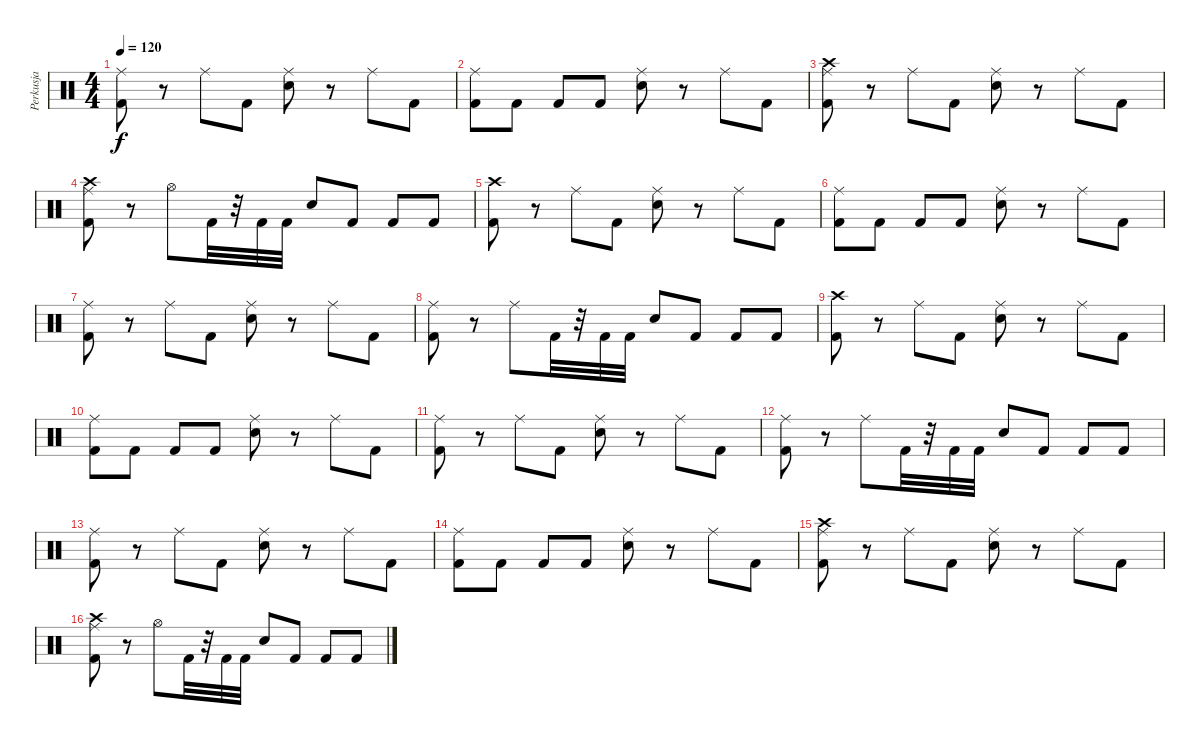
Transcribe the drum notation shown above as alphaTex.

\track ("Perkusja" "Perkusja") {instrument percussion}
\staff {score}
\articulation defaults
\ts (4 4)
\tempo 120
\clef neutral
\ks c
("Ride (middle)" "Kick (hit) 2").8{dy f} r.8 "Ride (middle)".8 "Kick (hit) 2".8 ("Ride (middle)" "Snare (hit) 2").8 r.8 "Ride (middle)".8 "Kick (hit) 2".8 |
("Ride (middle)" "Kick (hit) 2").8 "Kick (hit) 2".8 "Kick (hit) 2".8 "Kick (hit) 2".8 ("Ride (middle)" "Snare (hit) 2").8 r.8 "Ride (middle)".8 "Kick (hit) 2".8 |
("Ride (middle)" "Crash high (hit)" "Kick (hit) 2").8 r.8 "Ride (middle)".8 "Kick (hit) 2".8 ("Ride (middle)" "Snare (hit) 2").8 r.8 "Ride (middle)".8 "Kick (hit) 2".8 |
("Ride (middle)" "Crash high (hit)" "Kick (hit) 2").8 r.8 "Hi-Hat (open)".8 "Kick (hit) 2".32 r.32 "Kick (hit) 2".32 "Kick (hit) 2".32 "Snare (hit) 2".8 "Kick (hit) 2".8 "Kick (hit) 2".8 "Kick (hit) 2".8 |
("Crash high (hit)" "Kick (hit) 2").8 r.8 "Ride (middle)".8 "Kick (hit) 2".8 ("Ride (middle)" "Snare (hit) 2").8 r.8 "Ride (middle)".8 "Kick (hit) 2".8 |
("Ride (middle)" "Kick (hit) 2").8 "Kick (hit) 2".8 "Kick (hit) 2".8 "Kick (hit) 2".8 ("Ride (middle)" "Snare (hit) 2").8 r.8 "Ride (middle)".8 "Kick (hit) 2".8 |
("Ride (middle)" "Kick (hit) 2").8 r.8 "Ride (middle)".8 "Kick (hit) 2".8 ("Ride (middle)" "Snare (hit) 2").8 r.8 "Ride (middle)".8 "Kick (hit) 2".8 |
("Ride (middle)" "Kick (hit) 2").8 r.8 "Ride (middle)".8 "Kick (hit) 2".32 r.32 "Kick (hit) 2".32 "Kick (hit) 2".32 "Snare (hit) 2".8 "Kick (hit) 2".8 "Kick (hit) 2".8 "Kick (hit) 2".8 |
("Crash high (hit)" "Kick (hit) 2").8 r.8 "Ride (middle)".8 "Kick (hit) 2".8 ("Ride (middle)" "Snare (hit) 2").8 r.8 "Ride (middle)".8 "Kick (hit) 2".8 |
("Ride (middle)" "Kick (hit) 2").8 "Kick (hit) 2".8 "Kick (hit) 2".8 "Kick (hit) 2".8 ("Ride (middle)" "Snare (hit) 2").8 r.8 "Ride (middle)".8 "Kick (hit) 2".8 |
("Ride (middle)" "Kick (hit) 2").8 r.8 "Ride (middle)".8 "Kick (hit) 2".8 ("Ride (middle)" "Snare (hit) 2").8 r.8 "Ride (middle)".8 "Kick (hit) 2".8 |
("Ride (middle)" "Kick (hit) 2").8 r.8 "Ride (middle)".8 "Kick (hit) 2".32 r.32 "Kick (hit) 2".32 "Kick (hit) 2".32 "Snare (hit) 2".8 "Kick (hit) 2".8 "Kick (hit) 2".8 "Kick (hit) 2".8 |
("Ride (middle)" "Kick (hit) 2").8 r.8 "Ride (middle)".8 "Kick (hit) 2".8 ("Ride (middle)" "Snare (hit) 2").8 r.8 "Ride (middle)".8 "Kick (hit) 2".8 |
("Ride (middle)" "Kick (hit) 2").8 "Kick (hit) 2".8 "Kick (hit) 2".8 "Kick (hit) 2".8 ("Ride (middle)" "Snare (hit) 2").8 r.8 "Ride (middle)".8 "Kick (hit) 2".8 |
("Ride (middle)" "Crash high (hit)" "Kick (hit) 2").8 r.8 "Ride (middle)".8 "Kick (hit) 2".8 ("Ride (middle)" "Snare (hit) 2").8 r.8 "Ride (middle)".8 "Kick (hit) 2".8 |
("Ride (middle)" "Crash high (hit)" "Kick (hit) 2").8 r.8 "Hi-Hat (open)".8 "Kick (hit) 2".32 r.32 "Kick (hit) 2".32 "Kick (hit) 2".32 "Snare (hit) 2".8 "Kick (hit) 2".8 "Kick (hit) 2".8 "Kick (hit) 2".8
